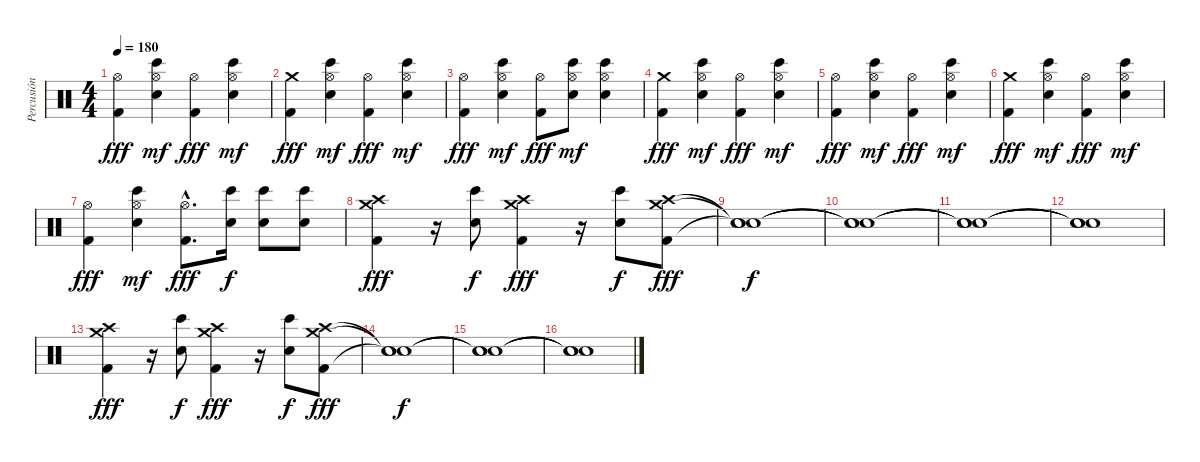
\track ("Percusión" "Percusión") {instrument percussion}
\staff {score}
\articulation defaults
\ts (4 4)
\tempo 180
\clef neutral
\ks c
("Hi-Hat (open)" "Kick (hit) 2").4{dy fff} ("Hi-Hat (open)" "Bongo High (hit)" "Snare (hit) 2").4{dy mf} ("Hi-Hat (open)" "Kick (hit) 2").4{dy fff} ("Hi-Hat (open)" "Bongo High (hit)" "Snare (hit) 2").4{dy mf} |
("Crash medium (hit)" "Kick (hit) 2").4{dy fff} ("Hi-Hat (open)" "Bongo High (hit)" "Snare (hit) 2").4{dy mf} ("Hi-Hat (open)" "Kick (hit) 2").4{dy fff} ("Hi-Hat (open)" "Bongo High (hit)" "Snare (hit) 2").4{dy mf} |
("Hi-Hat (open)" "Kick (hit) 2").4{dy fff} ("Hi-Hat (open)" "Bongo High (hit)" "Snare (hit) 2").4{dy mf} ("Hi-Hat (open)" "Kick (hit) 2").8{dy fff} ("Hi-Hat (open)" "Bongo High (hit)" "Snare (hit) 2").8{dy mf} ("Hi-Hat (open)" "Bongo High (hit)" "Snare (hit) 2").4 |
("Crash medium (hit)" "Kick (hit) 2").4{dy fff} ("Hi-Hat (open)" "Bongo High (hit)" "Snare (hit) 2").4{dy mf} ("Hi-Hat (open)" "Kick (hit) 2").4{dy fff} ("Hi-Hat (open)" "Bongo High (hit)" "Snare (hit) 2").4{dy mf} |
("Hi-Hat (open)" "Kick (hit) 2").4{dy fff} ("Hi-Hat (open)" "Bongo High (hit)" "Snare (hit) 2").4{dy mf} ("Hi-Hat (open)" "Kick (hit) 2").4{dy fff} ("Hi-Hat (open)" "Bongo High (hit)" "Snare (hit) 2").4{dy mf} |
("Crash medium (hit)" "Kick (hit) 2").4{dy fff} ("Hi-Hat (open)" "Bongo High (hit)" "Snare (hit) 2").4{dy mf} ("Hi-Hat (open)" "Kick (hit) 2").4{dy fff} ("Hi-Hat (open)" "Bongo High (hit)" "Snare (hit) 2").4{dy mf} |
("Hi-Hat (open)" "Kick (hit) 2").4{dy fff} ("Hi-Hat (open)" "Bongo High (hit)" "Snare (hit) 2").4{dy mf} ("Hi-Hat (open)"{hac} "Kick (hit) 2"{hac}).8{d dy fff} ("Bongo High (hit)" "Snare (hit) 2").16{dy f} ("Bongo High (hit)" "Snare (hit) 2").8 ("Bongo High (hit)" "Snare (hit) 2").8 |
("Crash medium (hit)" "Crash high (hit)" "Kick (hit) 2").4{dy fff} r.16 ("Bongo High (hit)" "Snare (hit) 2").8{dy f} ("Crash medium (hit)" "Crash high (hit)" "Kick (hit) 2").4{dy fff} r.16 ("Bongo High (hit)" "Snare (hit) 2").8{dy f} ("Crash medium (hit)" "Crash high (hit)" "Kick (hit) 2").8{dy fff} |
("Snare (hit)"{t} "Snare (hit)"{t} "Snare (hit)"{t}).1{dy f} |
("Snare (hit)"{t} "Snare (hit)"{t} "Snare (hit)"{t}).1 |
("Snare (hit)"{t} "Snare (hit)"{t} "Snare (hit)"{t}).1 |
("Snare (hit)"{t} "Snare (hit)"{t} "Snare (hit)"{t}).1 |
("Crash medium (hit)" "Crash high (hit)" "Kick (hit) 2").4{dy fff} r.16 ("Bongo High (hit)" "Snare (hit) 2").8{dy f} ("Crash medium (hit)" "Crash high (hit)" "Kick (hit) 2").4{dy fff} r.16 ("Bongo High (hit)" "Snare (hit) 2").8{dy f} ("Crash medium (hit)" "Crash high (hit)" "Kick (hit) 2").8{dy fff} |
("Snare (hit)"{t} "Snare (hit)"{t} "Snare (hit)"{t}).1{dy f} |
("Snare (hit)"{t} "Snare (hit)"{t} "Snare (hit)"{t}).1 |
("Snare (hit)"{t} "Snare (hit)"{t} "Snare (hit)"{t}).1
